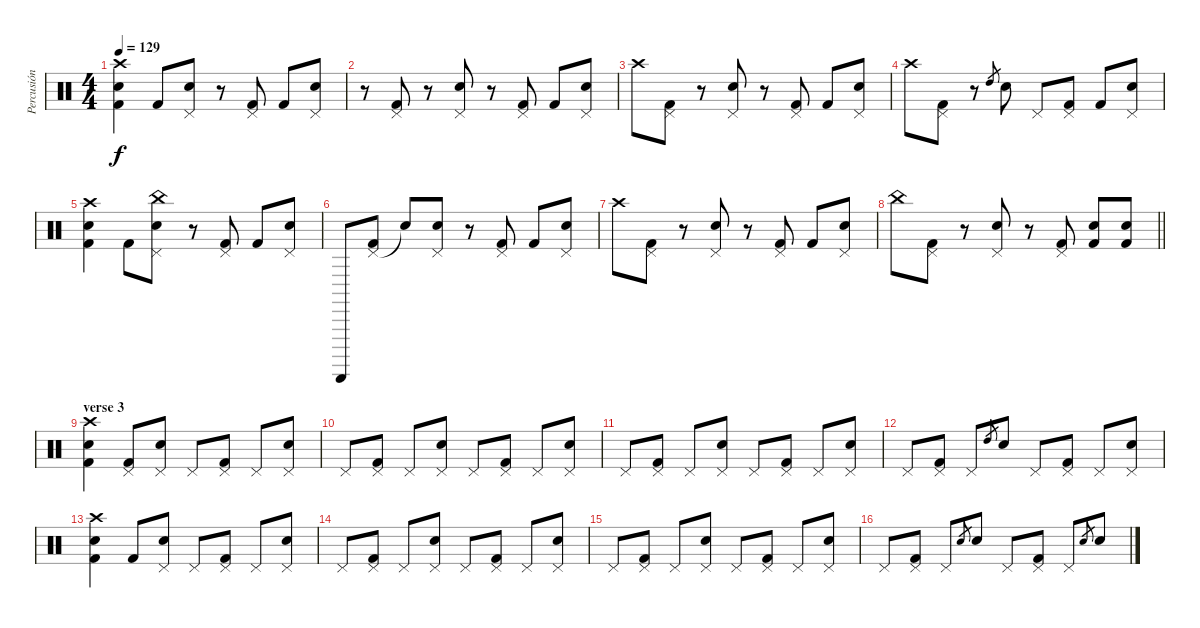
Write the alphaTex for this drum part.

\track ("Percusión" "Percusión") {instrument percussion}
\staff {score}
\articulation defaults
\ts (4 4)
\tempo 129
\clef neutral
\ks c
("Crash high (hit)" "Electric Snare (hit)" "Kick (hit) 2").4{dy f} "Kick (hit) 2".8 ("Electric Snare (hit)" "Pedal Hi-Hat (hit)").8 r.8 ("Pedal Hi-Hat (hit)" "Kick (hit) 2").8 "Kick (hit) 2".8 ("Electric Snare (hit)" "Pedal Hi-Hat (hit)").8 |
r.8 ("Pedal Hi-Hat (hit)" "Kick (hit) 2").8 r.8 ("Electric Snare (hit)" "Pedal Hi-Hat (hit)").8 r.8 ("Pedal Hi-Hat (hit)" "Kick (hit) 2").8 "Kick (hit) 2".8 ("Electric Snare (hit)" "Pedal Hi-Hat (hit)").8 |
"Crash high (hit)".8 ("Pedal Hi-Hat (hit)" "Kick (hit) 2").8 r.8 ("Electric Snare (hit)" "Pedal Hi-Hat (hit)").8 r.8 ("Pedal Hi-Hat (hit)" "Kick (hit) 2").8 "Kick (hit) 2".8 ("Electric Snare (hit)" "Pedal Hi-Hat (hit)").8 |
"Crash high (hit)".8 ("Pedal Hi-Hat (hit)" "Kick (hit) 2").8 r.8 "High Tom (hit)".8{gr} "Electric Snare (hit)".8 "Pedal Hi-Hat (hit)".8 ("Pedal Hi-Hat (hit)" "Kick (hit) 2").8 "Kick (hit) 2".8 ("Electric Snare (hit)" "Pedal Hi-Hat (hit)").8 |
("Crash high (hit)" "Electric Snare (hit)" "Kick (hit) 2").4 "Kick (hit) 2".8 ("China (hit)" "Electric Snare (hit)" "Pedal Hi-Hat (hit)").8 r.8 ("Pedal Hi-Hat (hit)" "Kick (hit) 2").8 "Kick (hit) 2".8 ("Electric Snare (hit)" "Pedal Hi-Hat (hit)").8 |
"Guiro (scrap-return)".8 ("Pedal Hi-Hat (hit)" "Kick (hit) 2").8 "Snare (hit)"{t}.8 ("Electric Snare (hit)" "Pedal Hi-Hat (hit)").8 r.8 ("Pedal Hi-Hat (hit)" "Kick (hit) 2").8 "Kick (hit) 2".8 ("Electric Snare (hit)" "Pedal Hi-Hat (hit)").8 |
"Crash high (hit)".8 ("Pedal Hi-Hat (hit)" "Kick (hit) 2").8 r.8 ("Electric Snare (hit)" "Pedal Hi-Hat (hit)").8 r.8 ("Pedal Hi-Hat (hit)" "Kick (hit) 2").8 "Kick (hit) 2".8 ("Electric Snare (hit)" "Pedal Hi-Hat (hit)").8 |
\barLineRight lightlight "China (hit)".8
("Pedal Hi-Hat (hit)" "Kick (hit) 2").8 r.8 ("Electric Snare (hit)" "Pedal Hi-Hat (hit)").8 r.8 ("Pedal Hi-Hat (hit)" "Kick (hit) 2").8 ("Electric Snare (hit)" "Kick (hit) 2").8 ("Electric Snare (hit)" "Kick (hit) 2").8 |
\section ("" "verse 3")
("Crash high (hit)" "Electric Snare (hit)" "Kick (hit) 2").4 ("Pedal Hi-Hat (hit)" "Kick (hit) 2").8 ("Electric Snare (hit)" "Pedal Hi-Hat (hit)").8 "Pedal Hi-Hat (hit)".8 ("Pedal Hi-Hat (hit)" "Kick (hit) 2").8 "Pedal Hi-Hat (hit)".8 ("Electric Snare (hit)" "Pedal Hi-Hat (hit)").8 |
"Pedal Hi-Hat (hit)".8 ("Pedal Hi-Hat (hit)" "Kick (hit) 2").8 "Pedal Hi-Hat (hit)".8 ("Electric Snare (hit)" "Pedal Hi-Hat (hit)").8 "Pedal Hi-Hat (hit)".8 ("Pedal Hi-Hat (hit)" "Kick (hit) 2").8 "Pedal Hi-Hat (hit)".8 ("Electric Snare (hit)" "Pedal Hi-Hat (hit)").8 |
"Pedal Hi-Hat (hit)".8 ("Pedal Hi-Hat (hit)" "Kick (hit) 2").8 "Pedal Hi-Hat (hit)".8 ("Electric Snare (hit)" "Pedal Hi-Hat (hit)").8 "Pedal Hi-Hat (hit)".8 ("Pedal Hi-Hat (hit)" "Kick (hit) 2").8 "Pedal Hi-Hat (hit)".8 ("Electric Snare (hit)" "Pedal Hi-Hat (hit)").8 |
"Pedal Hi-Hat (hit)".8 ("Pedal Hi-Hat (hit)" "Kick (hit) 2").8 "Pedal Hi-Hat (hit)".8 "High Tom (hit)".8{gr} "Electric Snare (hit)".8 "Pedal Hi-Hat (hit)".8 ("Pedal Hi-Hat (hit)" "Kick (hit) 2").8 "Pedal Hi-Hat (hit)".8 ("Electric Snare (hit)" "Pedal Hi-Hat (hit)").8 |
("Crash high (hit)" "Electric Snare (hit)" "Kick (hit) 2").4 "Kick (hit) 2".8 ("Electric Snare (hit)" "Pedal Hi-Hat (hit)").8 "Pedal Hi-Hat (hit)".8 ("Pedal Hi-Hat (hit)" "Kick (hit) 2").8 "Pedal Hi-Hat (hit)".8 ("Electric Snare (hit)" "Pedal Hi-Hat (hit)").8 |
"Pedal Hi-Hat (hit)".8 ("Pedal Hi-Hat (hit)" "Kick (hit) 2").8 "Pedal Hi-Hat (hit)".8 ("Electric Snare (hit)" "Pedal Hi-Hat (hit)").8 "Pedal Hi-Hat (hit)".8 ("Pedal Hi-Hat (hit)" "Kick (hit) 2").8 "Pedal Hi-Hat (hit)".8 ("Electric Snare (hit)" "Pedal Hi-Hat (hit)").8 |
"Pedal Hi-Hat (hit)".8 ("Pedal Hi-Hat (hit)" "Kick (hit) 2").8 "Pedal Hi-Hat (hit)".8 ("Electric Snare (hit)" "Pedal Hi-Hat (hit)").8 "Pedal Hi-Hat (hit)".8 ("Pedal Hi-Hat (hit)" "Kick (hit) 2").8 "Pedal Hi-Hat (hit)".8 ("Electric Snare (hit)" "Pedal Hi-Hat (hit)").8 |
"Pedal Hi-Hat (hit)".8 ("Pedal Hi-Hat (hit)" "Kick (hit) 2").8 "Pedal Hi-Hat (hit)".8 "Snare (hit) 2".8{gr} "Electric Snare (hit)".8 "Pedal Hi-Hat (hit)".8 ("Pedal Hi-Hat (hit)" "Kick (hit) 2").8 "Pedal Hi-Hat (hit)".8 "Snare (hit) 2".8{gr} "Electric Snare (hit)".8
